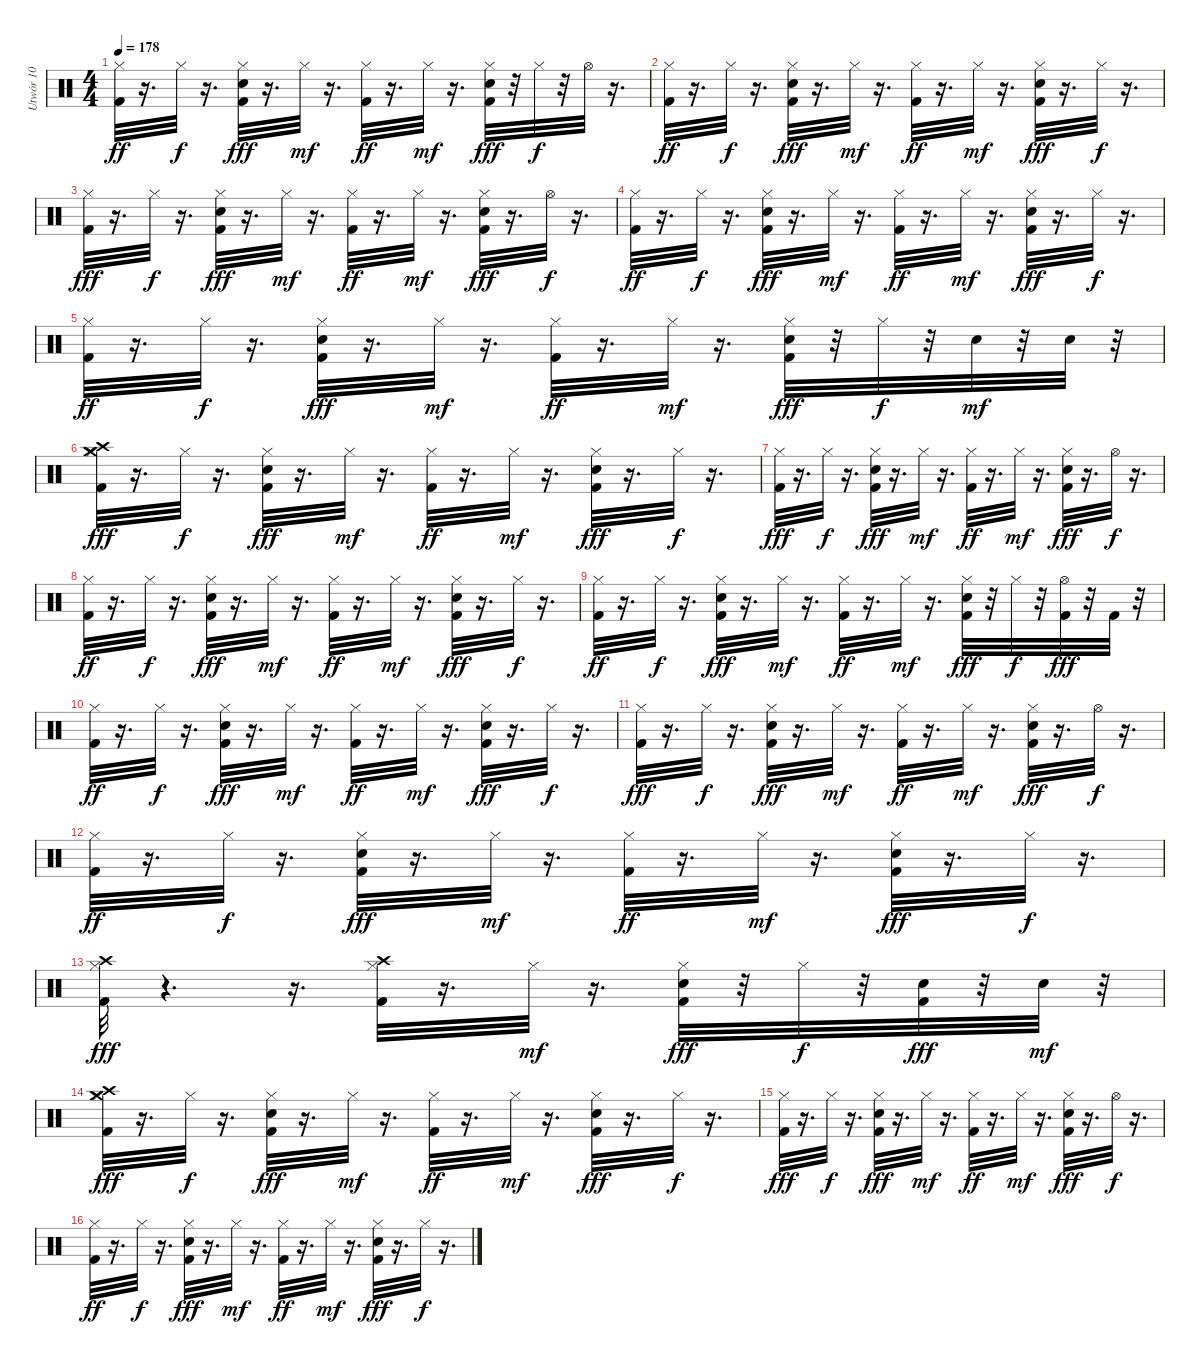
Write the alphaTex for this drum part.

\track ("Utwór 10" "Utwór 10") {instrument percussion}
\staff {score}
\articulation defaults
\ts (4 4)
\tempo 178
\clef neutral
\ks c
("Kick (hit) 2" "Hi-Hat (closed)").32{dy ff} r.16{d} "Hi-Hat (closed)".32{dy f} r.16{d} ("Kick (hit) 2" "Electric Snare (hit)" "Hi-Hat (closed)").32{dy fff} r.16{d} "Hi-Hat (closed)".32{dy mf} r.16{d} ("Kick (hit) 2" "Hi-Hat (closed)").32{dy ff} r.16{d} "Hi-Hat (closed)".32{dy mf} r.16{d} ("Kick (hit) 2" "Electric Snare (hit)" "Hi-Hat (closed)").32{dy fff} r.32 "Hi-Hat (closed)".32{dy f} r.32 "Hi-Hat (open)".32 r.16{d} |
("Kick (hit) 2" "Hi-Hat (closed)").32{dy ff} r.16{d} "Hi-Hat (closed)".32{dy f} r.16{d} ("Kick (hit) 2" "Electric Snare (hit)" "Hi-Hat (closed)").32{dy fff} r.16{d} "Hi-Hat (closed)".32{dy mf} r.16{d} ("Kick (hit) 2" "Hi-Hat (closed)").32{dy ff} r.16{d} "Hi-Hat (closed)".32{dy mf} r.16{d} ("Kick (hit) 2" "Electric Snare (hit)" "Hi-Hat (closed)").32{dy fff} r.16{d} "Hi-Hat (closed)".32{dy f} r.16{d} |
("Kick (hit) 2" "Hi-Hat (closed)").32{dy fff} r.16{d} "Hi-Hat (closed)".32{dy f} r.16{d} ("Kick (hit) 2" "Electric Snare (hit)" "Hi-Hat (closed)").32{dy fff} r.16{d} "Hi-Hat (closed)".32{dy mf} r.16{d} ("Kick (hit) 2" "Hi-Hat (closed)").32{dy ff} r.16{d} "Hi-Hat (closed)".32{dy mf} r.16{d} ("Kick (hit) 2" "Electric Snare (hit)" "Hi-Hat (closed)").32{dy fff} r.16{d} "Hi-Hat (open)".32{dy f} r.16{d} |
("Kick (hit) 2" "Hi-Hat (closed)").32{dy ff} r.16{d} "Hi-Hat (closed)".32{dy f} r.16{d} ("Kick (hit) 2" "Electric Snare (hit)" "Hi-Hat (closed)").32{dy fff} r.16{d} "Hi-Hat (closed)".32{dy mf} r.16{d} ("Kick (hit) 2" "Hi-Hat (closed)").32{dy ff} r.16{d} "Hi-Hat (closed)".32{dy mf} r.16{d} ("Kick (hit) 2" "Electric Snare (hit)" "Hi-Hat (closed)").32{dy fff} r.16{d} "Hi-Hat (closed)".32{dy f} r.16{d} |
("Kick (hit) 2" "Hi-Hat (closed)").32{dy ff} r.16{d} "Hi-Hat (closed)".32{dy f} r.16{d} ("Kick (hit) 2" "Electric Snare (hit)" "Hi-Hat (closed)").32{dy fff} r.16{d} "Hi-Hat (closed)".32{dy mf} r.16{d} ("Kick (hit) 2" "Hi-Hat (closed)").32{dy ff} r.16{d} "Hi-Hat (closed)".32{dy mf} r.16{d} ("Kick (hit) 2" "Electric Snare (hit)" "Hi-Hat (closed)").32{dy fff} r.32 "Hi-Hat (closed)".32{dy f} r.32 "Electric Snare (hit)".32{dy mf} r.32 "Electric Snare (hit)".32 r.32 |
("Kick (hit) 2" "Hi-Hat (closed)" "Crash high (hit)" "Crash medium (hit)").32{dy fff} r.16{d} "Hi-Hat (closed)".32{dy f} r.16{d} ("Kick (hit) 2" "Electric Snare (hit)" "Hi-Hat (closed)").32{dy fff} r.16{d} "Hi-Hat (closed)".32{dy mf} r.16{d} ("Kick (hit) 2" "Hi-Hat (closed)").32{dy ff} r.16{d} "Hi-Hat (closed)".32{dy mf} r.16{d} ("Kick (hit) 2" "Electric Snare (hit)" "Hi-Hat (closed)").32{dy fff} r.16{d} "Hi-Hat (closed)".32{dy f} r.16{d} |
("Kick (hit) 2" "Hi-Hat (closed)").32{dy fff} r.16{d} "Hi-Hat (closed)".32{dy f} r.16{d} ("Kick (hit) 2" "Electric Snare (hit)" "Hi-Hat (closed)").32{dy fff} r.16{d} "Hi-Hat (closed)".32{dy mf} r.16{d} ("Kick (hit) 2" "Hi-Hat (closed)").32{dy ff} r.16{d} "Hi-Hat (closed)".32{dy mf} r.16{d} ("Kick (hit) 2" "Electric Snare (hit)" "Hi-Hat (closed)").32{dy fff} r.16{d} "Hi-Hat (open)".32{dy f} r.16{d} |
("Kick (hit) 2" "Hi-Hat (closed)").32{dy ff} r.16{d} "Hi-Hat (closed)".32{dy f} r.16{d} ("Kick (hit) 2" "Electric Snare (hit)" "Hi-Hat (closed)").32{dy fff} r.16{d} "Hi-Hat (closed)".32{dy mf} r.16{d} ("Kick (hit) 2" "Hi-Hat (closed)").32{dy ff} r.16{d} "Hi-Hat (closed)".32{dy mf} r.16{d} ("Kick (hit) 2" "Electric Snare (hit)" "Hi-Hat (closed)").32{dy fff} r.16{d} "Hi-Hat (closed)".32{dy f} r.16{d} |
("Kick (hit) 2" "Hi-Hat (closed)").32{dy ff} r.16{d} "Hi-Hat (closed)".32{dy f} r.16{d} ("Kick (hit) 2" "Electric Snare (hit)" "Hi-Hat (closed)").32{dy fff} r.16{d} "Hi-Hat (closed)".32{dy mf} r.16{d} ("Kick (hit) 2" "Hi-Hat (closed)").32{dy ff} r.16{d} "Hi-Hat (closed)".32{dy mf} r.16{d} ("Kick (hit) 2" "Electric Snare (hit)" "Hi-Hat (closed)").32{dy fff} r.32 "Hi-Hat (closed)".32{dy f} r.32 ("Hi-Hat (open)" "Kick (hit) 2").32{dy fff} r.32 "Kick (hit) 2".32 r.32 |
("Kick (hit) 2" "Hi-Hat (closed)").32{dy ff} r.16{d} "Hi-Hat (closed)".32{dy f} r.16{d} ("Kick (hit) 2" "Electric Snare (hit)" "Hi-Hat (closed)").32{dy fff} r.16{d} "Hi-Hat (closed)".32{dy mf} r.16{d} ("Kick (hit) 2" "Hi-Hat (closed)").32{dy ff} r.16{d} "Hi-Hat (closed)".32{dy mf} r.16{d} ("Kick (hit) 2" "Electric Snare (hit)" "Hi-Hat (closed)").32{dy fff} r.16{d} "Hi-Hat (closed)".32{dy f} r.16{d} |
("Kick (hit) 2" "Hi-Hat (closed)").32{dy fff} r.16{d} "Hi-Hat (closed)".32{dy f} r.16{d} ("Kick (hit) 2" "Electric Snare (hit)" "Hi-Hat (closed)").32{dy fff} r.16{d} "Hi-Hat (closed)".32{dy mf} r.16{d} ("Kick (hit) 2" "Hi-Hat (closed)").32{dy ff} r.16{d} "Hi-Hat (closed)".32{dy mf} r.16{d} ("Kick (hit) 2" "Electric Snare (hit)" "Hi-Hat (closed)").32{dy fff} r.16{d} "Hi-Hat (open)".32{dy f} r.16{d} |
("Kick (hit) 2" "Hi-Hat (closed)").32{dy ff} r.16{d} "Hi-Hat (closed)".32{dy f} r.16{d} ("Kick (hit) 2" "Electric Snare (hit)" "Hi-Hat (closed)").32{dy fff} r.16{d} "Hi-Hat (closed)".32{dy mf} r.16{d} ("Kick (hit) 2" "Hi-Hat (closed)").32{dy ff} r.16{d} "Hi-Hat (closed)".32{dy mf} r.16{d} ("Kick (hit) 2" "Electric Snare (hit)" "Hi-Hat (closed)").32{dy fff} r.16{d} "Hi-Hat (closed)".32{dy f} r.16{d} |
("Kick (hit) 2" "Hi-Hat (closed)" "Crash high (hit)").32{dy fff} r.4{d} r.16{d} ("Kick (hit) 2" "Hi-Hat (closed)" "Crash high (hit)").32 r.16{d} "Hi-Hat (closed)".32{dy mf} r.16{d} ("Kick (hit) 2" "Electric Snare (hit)" "Hi-Hat (closed)").32{dy fff} r.32 "Hi-Hat (closed)".32{dy f} r.32 ("Electric Snare (hit)" "Kick (hit) 2").32{dy fff} r.32 "Electric Snare (hit)".32{dy mf} r.32 |
("Kick (hit) 2" "Hi-Hat (closed)" "Crash high (hit)" "Crash medium (hit)").32{dy fff} r.16{d} "Hi-Hat (closed)".32{dy f} r.16{d} ("Kick (hit) 2" "Electric Snare (hit)" "Hi-Hat (closed)").32{dy fff} r.16{d} "Hi-Hat (closed)".32{dy mf} r.16{d} ("Kick (hit) 2" "Hi-Hat (closed)").32{dy ff} r.16{d} "Hi-Hat (closed)".32{dy mf} r.16{d} ("Kick (hit) 2" "Electric Snare (hit)" "Hi-Hat (closed)").32{dy fff} r.16{d} "Hi-Hat (closed)".32{dy f} r.16{d} |
("Kick (hit) 2" "Hi-Hat (closed)").32{dy fff} r.16{d} "Hi-Hat (closed)".32{dy f} r.16{d} ("Kick (hit) 2" "Electric Snare (hit)" "Hi-Hat (closed)").32{dy fff} r.16{d} "Hi-Hat (closed)".32{dy mf} r.16{d} ("Kick (hit) 2" "Hi-Hat (closed)").32{dy ff} r.16{d} "Hi-Hat (closed)".32{dy mf} r.16{d} ("Kick (hit) 2" "Electric Snare (hit)" "Hi-Hat (closed)").32{dy fff} r.16{d} "Hi-Hat (open)".32{dy f} r.16{d} |
("Kick (hit) 2" "Hi-Hat (closed)").32{dy ff} r.16{d} "Hi-Hat (closed)".32{dy f} r.16{d} ("Kick (hit) 2" "Electric Snare (hit)" "Hi-Hat (closed)").32{dy fff} r.16{d} "Hi-Hat (closed)".32{dy mf} r.16{d} ("Kick (hit) 2" "Hi-Hat (closed)").32{dy ff} r.16{d} "Hi-Hat (closed)".32{dy mf} r.16{d} ("Kick (hit) 2" "Electric Snare (hit)" "Hi-Hat (closed)").32{dy fff} r.16{d} "Hi-Hat (closed)".32{dy f} r.16{d}
